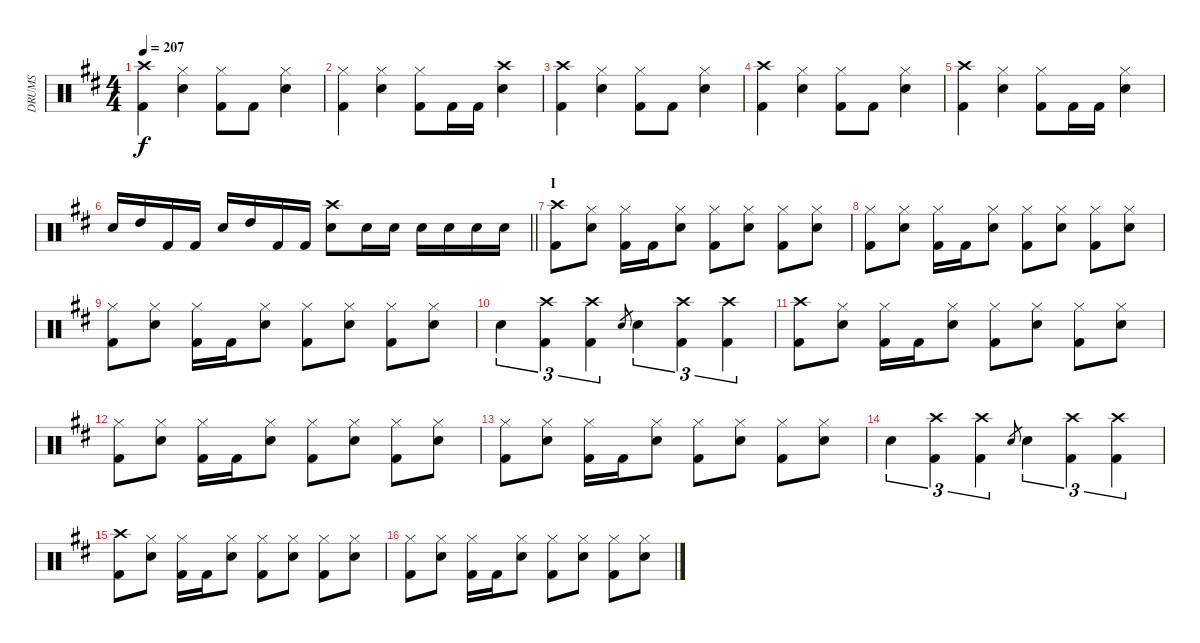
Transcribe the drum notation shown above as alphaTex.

\track ("DRUMS" "DRUMS") {instrument percussion}
\staff {score}
\articulation defaults
\ts (4 4)
\tempo 207
\clef neutral
\ks d
("Crash high (hit)" "Kick (hit) 2").4{dy f} ("Hi-Hat (closed)" "Snare (hit) 2").4 ("Hi-Hat (closed)" "Kick (hit) 2").8 "Kick (hit) 2".8 ("Hi-Hat (closed)" "Snare (hit) 2").4 |
("Hi-Hat (closed)" "Kick (hit) 2").4 ("Hi-Hat (closed)" "Snare (hit) 2").4 ("Hi-Hat (closed)" "Kick (hit) 2").8 "Kick (hit) 2".16 "Kick (hit) 2".16 ("Crash high (hit)" "Snare (hit) 2").4 |
("Crash high (hit)" "Kick (hit) 2").4 ("Hi-Hat (closed)" "Snare (hit) 2").4 ("Hi-Hat (closed)" "Kick (hit) 2").8 "Kick (hit) 2".8 ("Hi-Hat (closed)" "Snare (hit) 2").4 |
("Crash high (hit)" "Kick (hit) 2").4 ("Hi-Hat (closed)" "Snare (hit) 2").4 ("Hi-Hat (closed)" "Kick (hit) 2").8 "Kick (hit) 2".8 ("Hi-Hat (closed)" "Snare (hit) 2").4 |
("Crash high (hit)" "Kick (hit) 2").4 ("Hi-Hat (closed)" "Snare (hit) 2").4 ("Hi-Hat (closed)" "Kick (hit) 2").8 "Kick (hit) 2".16 "Kick (hit) 2".16 ("Hi-Hat (closed)" "Snare (hit) 2").4 |
\barLineRight lightlight "Snare (hit) 2".16 "High Tom (hit)".16 "Kick (hit) 2".16 "Kick (hit) 2".16 "Snare (hit) 2".16 "High Tom (hit)".16 "Kick (hit) 2".16 "Kick (hit) 2".16
("Crash high (hit)" "Snare (hit) 2").8 "Snare (hit) 2".16 "Snare (hit) 2".16 "Snare (hit) 2".16 "Snare (hit) 2".16 "Snare (hit) 2".16 "Snare (hit) 2".16 |
\section ("" "I")
("Crash high (hit)" "Kick (hit) 2").8 ("Hi-Hat (closed)" "Snare (hit) 2").8 ("Hi-Hat (closed)" "Kick (hit) 2").16 "Kick (hit) 2".16 ("Hi-Hat (closed)" "Snare (hit) 2").8 ("Hi-Hat (closed)" "Kick (hit) 2").8 ("Hi-Hat (closed)" "Snare (hit) 2").8 ("Hi-Hat (closed)" "Kick (hit) 2").8 ("Hi-Hat (closed)" "Snare (hit) 2").8 |
("Hi-Hat (closed)" "Kick (hit) 2").8 ("Hi-Hat (closed)" "Snare (hit) 2").8 ("Hi-Hat (closed)" "Kick (hit) 2").16 "Kick (hit) 2".16 ("Hi-Hat (closed)" "Snare (hit) 2").8 ("Hi-Hat (closed)" "Kick (hit) 2").8 ("Hi-Hat (closed)" "Snare (hit) 2").8 ("Hi-Hat (closed)" "Kick (hit) 2").8 ("Hi-Hat (closed)" "Snare (hit) 2").8 |
("Hi-Hat (closed)" "Kick (hit) 2").8 ("Hi-Hat (closed)" "Snare (hit) 2").8 ("Hi-Hat (closed)" "Kick (hit) 2").16 "Kick (hit) 2".16 ("Hi-Hat (closed)" "Snare (hit) 2").8 ("Hi-Hat (closed)" "Kick (hit) 2").8 ("Hi-Hat (closed)" "Snare (hit) 2").8 ("Hi-Hat (closed)" "Kick (hit) 2").8 ("Hi-Hat (closed)" "Snare (hit) 2").8 |
"Snare (hit) 2".4{tu (3 2)} ("Crash high (hit)" "Kick (hit) 2").4{tu (3 2)} ("Crash high (hit)" "Kick (hit) 2").4{tu (3 2)} "Snare (hit) 2".8{gr} "Snare (hit) 2".4{tu (3 2)} ("Crash high (hit)" "Kick (hit) 2").4{tu (3 2)} ("Crash high (hit)" "Kick (hit) 2").4{tu (3 2)} |
("Crash high (hit)" "Kick (hit) 2").8 ("Hi-Hat (closed)" "Snare (hit) 2").8 ("Hi-Hat (closed)" "Kick (hit) 2").16 "Kick (hit) 2".16 ("Hi-Hat (closed)" "Snare (hit) 2").8 ("Hi-Hat (closed)" "Kick (hit) 2").8 ("Hi-Hat (closed)" "Snare (hit) 2").8 ("Hi-Hat (closed)" "Kick (hit) 2").8 ("Hi-Hat (closed)" "Snare (hit) 2").8 |
("Hi-Hat (closed)" "Kick (hit) 2").8 ("Hi-Hat (closed)" "Snare (hit) 2").8 ("Hi-Hat (closed)" "Kick (hit) 2").16 "Kick (hit) 2".16 ("Hi-Hat (closed)" "Snare (hit) 2").8 ("Hi-Hat (closed)" "Kick (hit) 2").8 ("Hi-Hat (closed)" "Snare (hit) 2").8 ("Hi-Hat (closed)" "Kick (hit) 2").8 ("Hi-Hat (closed)" "Snare (hit) 2").8 |
("Hi-Hat (closed)" "Kick (hit) 2").8 ("Hi-Hat (closed)" "Snare (hit) 2").8 ("Hi-Hat (closed)" "Kick (hit) 2").16 "Kick (hit) 2".16 ("Hi-Hat (closed)" "Snare (hit) 2").8 ("Hi-Hat (closed)" "Kick (hit) 2").8 ("Hi-Hat (closed)" "Snare (hit) 2").8 ("Hi-Hat (closed)" "Kick (hit) 2").8 ("Hi-Hat (closed)" "Snare (hit) 2").8 |
"Snare (hit) 2".4{tu (3 2)} ("Crash high (hit)" "Kick (hit) 2").4{tu (3 2)} ("Crash high (hit)" "Kick (hit) 2").4{tu (3 2)} "Snare (hit) 2".8{gr} "Snare (hit) 2".4{tu (3 2)} ("Crash high (hit)" "Kick (hit) 2").4{tu (3 2)} ("Crash high (hit)" "Kick (hit) 2").4{tu (3 2)} |
("Crash high (hit)" "Kick (hit) 2").8 ("Hi-Hat (closed)" "Snare (hit) 2").8 ("Hi-Hat (closed)" "Kick (hit) 2").16 "Kick (hit) 2".16 ("Hi-Hat (closed)" "Snare (hit) 2").8 ("Hi-Hat (closed)" "Kick (hit) 2").8 ("Hi-Hat (closed)" "Snare (hit) 2").8 ("Hi-Hat (closed)" "Kick (hit) 2").8 ("Hi-Hat (closed)" "Snare (hit) 2").8 |
("Hi-Hat (closed)" "Kick (hit) 2").8 ("Hi-Hat (closed)" "Snare (hit) 2").8 ("Hi-Hat (closed)" "Kick (hit) 2").16 "Kick (hit) 2".16 ("Hi-Hat (closed)" "Snare (hit) 2").8 ("Hi-Hat (closed)" "Kick (hit) 2").8 ("Hi-Hat (closed)" "Snare (hit) 2").8 ("Hi-Hat (closed)" "Kick (hit) 2").8 ("Hi-Hat (closed)" "Snare (hit) 2").8
